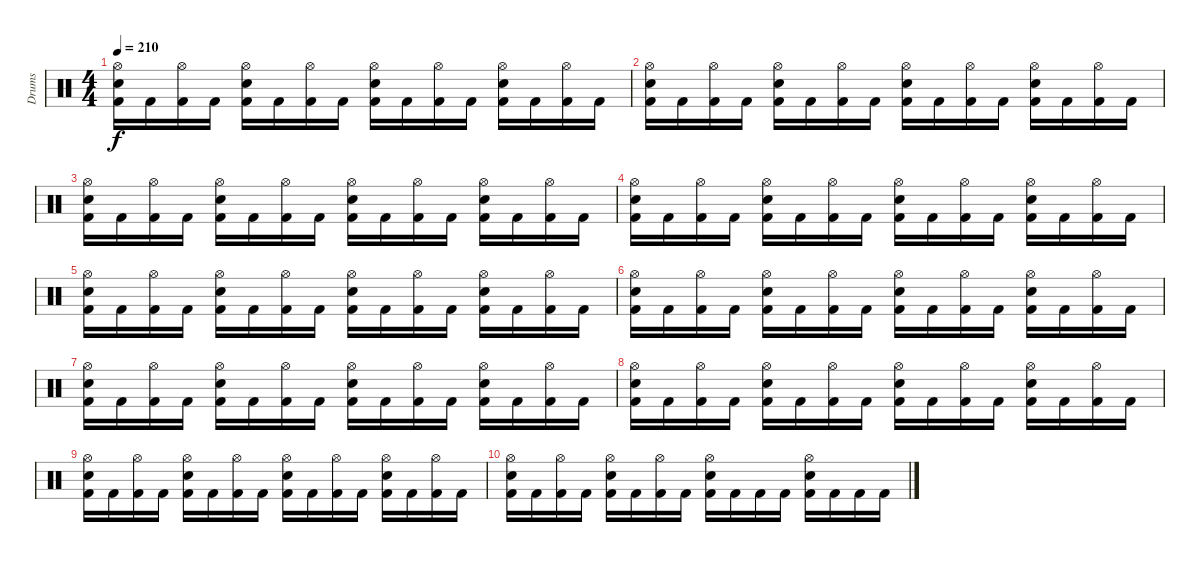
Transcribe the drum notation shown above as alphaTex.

\track ("Drums" "Drums") {instrument percussion}
\staff {score}
\articulation defaults
\ts (4 4)
\tempo 210
\clef neutral
\ks c
("Hi-Hat (open)" "Electric Snare (hit)" "Kick (hit) 2").16{dy f} "Kick (hit) 2".16 ("Hi-Hat (open)" "Kick (hit) 2").16 "Kick (hit) 2".16 ("Hi-Hat (open)" "Electric Snare (hit)" "Kick (hit) 2").16 "Kick (hit) 2".16 ("Hi-Hat (open)" "Kick (hit) 2").16 "Kick (hit) 2".16 ("Hi-Hat (open)" "Electric Snare (hit)" "Kick (hit) 2").16 "Kick (hit) 2".16 ("Hi-Hat (open)" "Kick (hit) 2").16 "Kick (hit) 2".16 ("Hi-Hat (open)" "Electric Snare (hit)" "Kick (hit) 2").16 "Kick (hit) 2".16 ("Hi-Hat (open)" "Kick (hit) 2").16 "Kick (hit) 2".16 |
("Hi-Hat (open)" "Electric Snare (hit)" "Kick (hit) 2").16 "Kick (hit) 2".16 ("Hi-Hat (open)" "Kick (hit) 2").16 "Kick (hit) 2".16 ("Hi-Hat (open)" "Electric Snare (hit)" "Kick (hit) 2").16 "Kick (hit) 2".16 ("Hi-Hat (open)" "Kick (hit) 2").16 "Kick (hit) 2".16 ("Hi-Hat (open)" "Electric Snare (hit)" "Kick (hit) 2").16 "Kick (hit) 2".16 ("Hi-Hat (open)" "Kick (hit) 2").16 "Kick (hit) 2".16 ("Hi-Hat (open)" "Electric Snare (hit)" "Kick (hit) 2").16 "Kick (hit) 2".16 ("Hi-Hat (open)" "Kick (hit) 2").16 "Kick (hit) 2".16 |
("Hi-Hat (open)" "Electric Snare (hit)" "Kick (hit) 2").16 "Kick (hit) 2".16 ("Hi-Hat (open)" "Kick (hit) 2").16 "Kick (hit) 2".16 ("Hi-Hat (open)" "Electric Snare (hit)" "Kick (hit) 2").16 "Kick (hit) 2".16 ("Hi-Hat (open)" "Kick (hit) 2").16 "Kick (hit) 2".16 ("Hi-Hat (open)" "Electric Snare (hit)" "Kick (hit) 2").16 "Kick (hit) 2".16 ("Hi-Hat (open)" "Kick (hit) 2").16 "Kick (hit) 2".16 ("Hi-Hat (open)" "Electric Snare (hit)" "Kick (hit) 2").16 "Kick (hit) 2".16 ("Hi-Hat (open)" "Kick (hit) 2").16 "Kick (hit) 2".16 |
("Hi-Hat (open)" "Electric Snare (hit)" "Kick (hit) 2").16 "Kick (hit) 2".16 ("Hi-Hat (open)" "Kick (hit) 2").16 "Kick (hit) 2".16 ("Hi-Hat (open)" "Electric Snare (hit)" "Kick (hit) 2").16 "Kick (hit) 2".16 ("Hi-Hat (open)" "Kick (hit) 2").16 "Kick (hit) 2".16 ("Hi-Hat (open)" "Electric Snare (hit)" "Kick (hit) 2").16 "Kick (hit) 2".16 ("Hi-Hat (open)" "Kick (hit) 2").16 "Kick (hit) 2".16 ("Hi-Hat (open)" "Electric Snare (hit)" "Kick (hit) 2").16 "Kick (hit) 2".16 ("Hi-Hat (open)" "Kick (hit) 2").16 "Kick (hit) 2".16 |
("Hi-Hat (open)" "Electric Snare (hit)" "Kick (hit) 2").16 "Kick (hit) 2".16 ("Hi-Hat (open)" "Kick (hit) 2").16 "Kick (hit) 2".16 ("Hi-Hat (open)" "Electric Snare (hit)" "Kick (hit) 2").16 "Kick (hit) 2".16 ("Hi-Hat (open)" "Kick (hit) 2").16 "Kick (hit) 2".16 ("Hi-Hat (open)" "Electric Snare (hit)" "Kick (hit) 2").16 "Kick (hit) 2".16 ("Hi-Hat (open)" "Kick (hit) 2").16 "Kick (hit) 2".16 ("Hi-Hat (open)" "Electric Snare (hit)" "Kick (hit) 2").16 "Kick (hit) 2".16 ("Hi-Hat (open)" "Kick (hit) 2").16 "Kick (hit) 2".16 |
("Hi-Hat (open)" "Electric Snare (hit)" "Kick (hit) 2").16 "Kick (hit) 2".16 ("Hi-Hat (open)" "Kick (hit) 2").16 "Kick (hit) 2".16 ("Hi-Hat (open)" "Electric Snare (hit)" "Kick (hit) 2").16 "Kick (hit) 2".16 ("Hi-Hat (open)" "Kick (hit) 2").16 "Kick (hit) 2".16 ("Hi-Hat (open)" "Electric Snare (hit)" "Kick (hit) 2").16 "Kick (hit) 2".16 ("Hi-Hat (open)" "Kick (hit) 2").16 "Kick (hit) 2".16 ("Hi-Hat (open)" "Electric Snare (hit)" "Kick (hit) 2").16 "Kick (hit) 2".16 ("Hi-Hat (open)" "Kick (hit) 2").16 "Kick (hit) 2".16 |
("Hi-Hat (open)" "Electric Snare (hit)" "Kick (hit) 2").16 "Kick (hit) 2".16 ("Hi-Hat (open)" "Kick (hit) 2").16 "Kick (hit) 2".16 ("Hi-Hat (open)" "Electric Snare (hit)" "Kick (hit) 2").16 "Kick (hit) 2".16 ("Hi-Hat (open)" "Kick (hit) 2").16 "Kick (hit) 2".16 ("Hi-Hat (open)" "Electric Snare (hit)" "Kick (hit) 2").16 "Kick (hit) 2".16 ("Hi-Hat (open)" "Kick (hit) 2").16 "Kick (hit) 2".16 ("Hi-Hat (open)" "Electric Snare (hit)" "Kick (hit) 2").16 "Kick (hit) 2".16 ("Hi-Hat (open)" "Kick (hit) 2").16 "Kick (hit) 2".16 |
("Hi-Hat (open)" "Electric Snare (hit)" "Kick (hit) 2").16 "Kick (hit) 2".16 ("Hi-Hat (open)" "Kick (hit) 2").16 "Kick (hit) 2".16 ("Hi-Hat (open)" "Electric Snare (hit)" "Kick (hit) 2").16 "Kick (hit) 2".16 ("Hi-Hat (open)" "Kick (hit) 2").16 "Kick (hit) 2".16 ("Hi-Hat (open)" "Electric Snare (hit)" "Kick (hit) 2").16 "Kick (hit) 2".16 ("Hi-Hat (open)" "Kick (hit) 2").16 "Kick (hit) 2".16 ("Hi-Hat (open)" "Electric Snare (hit)" "Kick (hit) 2").16 "Kick (hit) 2".16 ("Hi-Hat (open)" "Kick (hit) 2").16 "Kick (hit) 2".16 |
("Hi-Hat (open)" "Electric Snare (hit)" "Kick (hit) 2").16 "Kick (hit) 2".16 ("Hi-Hat (open)" "Kick (hit) 2").16 "Kick (hit) 2".16 ("Hi-Hat (open)" "Electric Snare (hit)" "Kick (hit) 2").16 "Kick (hit) 2".16 ("Hi-Hat (open)" "Kick (hit) 2").16 "Kick (hit) 2".16 ("Hi-Hat (open)" "Electric Snare (hit)" "Kick (hit) 2").16 "Kick (hit) 2".16 ("Hi-Hat (open)" "Kick (hit) 2").16 "Kick (hit) 2".16 ("Hi-Hat (open)" "Electric Snare (hit)" "Kick (hit) 2").16 "Kick (hit) 2".16 ("Hi-Hat (open)" "Kick (hit) 2").16 "Kick (hit) 2".16 |
("Hi-Hat (open)" "Electric Snare (hit)" "Kick (hit) 2").16 "Kick (hit) 2".16 ("Hi-Hat (open)" "Kick (hit) 2").16 "Kick (hit) 2".16 ("Hi-Hat (open)" "Electric Snare (hit)" "Kick (hit) 2").16 "Kick (hit) 2".16 ("Hi-Hat (open)" "Kick (hit) 2").16 "Kick (hit) 2".16 ("Hi-Hat (open)" "Electric Snare (hit)" "Kick (hit) 2").16 "Kick (hit) 2".16 "Kick (hit) 2".16 "Kick (hit) 2".16 ("Hi-Hat (open)" "Electric Snare (hit)" "Kick (hit) 2").16 "Kick (hit) 2".16 "Kick (hit) 2".16 "Kick (hit) 2".16
